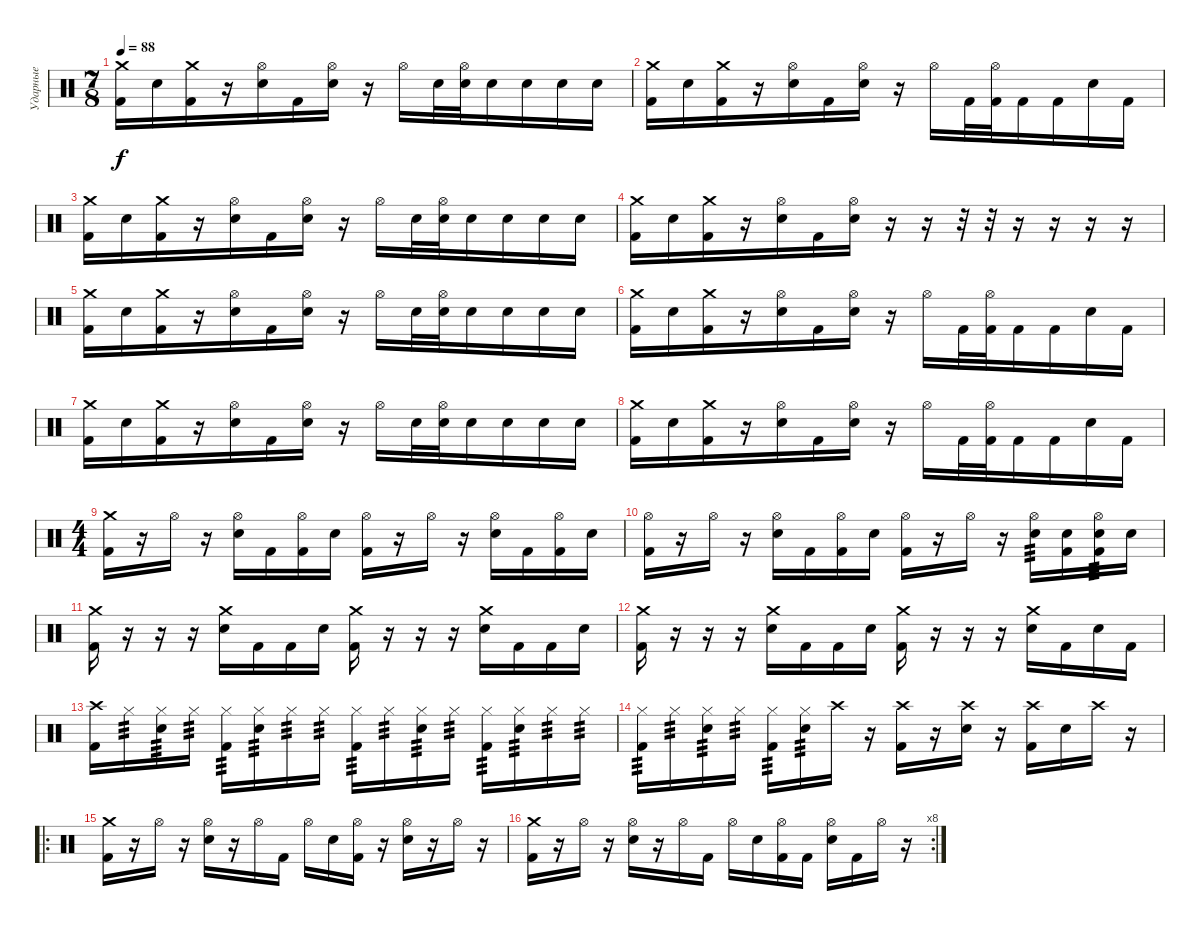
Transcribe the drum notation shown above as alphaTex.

\track ("Ударные" "Ударные") {instrument percussion}
\staff {score}
\articulation defaults
\ts (7 8)
\tempo 88
\clef neutral
\ks c
("Crash medium (hit)" "Kick (hit) 2").16{dy f} "Snare (hit) 2".16 ("Crash medium (hit)" "Kick (hit) 2").16 r.16 ("Hi-Hat (open)" "Snare (hit) 2").16 "Kick (hit) 2".16 ("Hi-Hat (open)" "Snare (hit) 2").16 r.16 "Hi-Hat (open)".16 "Snare (hit) 2".32 ("Hi-Hat (open)" "Snare (hit) 2").32 "Snare (hit) 2".16 "Snare (hit) 2".16 "Snare (hit) 2".16 "Snare (hit) 2".16 |
("Crash medium (hit)" "Kick (hit) 2").16 "Snare (hit) 2".16 ("Crash medium (hit)" "Kick (hit) 2").16 r.16 ("Hi-Hat (open)" "Snare (hit) 2").16 "Kick (hit) 2".16 ("Hi-Hat (open)" "Snare (hit) 2").16 r.16 "Hi-Hat (open)".16 "Kick (hit) 2".32 ("Hi-Hat (open)" "Kick (hit) 2").32 "Kick (hit) 2".16 "Kick (hit) 2".16 "Snare (hit) 2".16 "Kick (hit) 2".16 |
("Crash medium (hit)" "Kick (hit) 2").16 "Snare (hit) 2".16 ("Crash medium (hit)" "Kick (hit) 2").16 r.16 ("Hi-Hat (open)" "Snare (hit) 2").16 "Kick (hit) 2".16 ("Hi-Hat (open)" "Snare (hit) 2").16 r.16 "Hi-Hat (open)".16 "Snare (hit) 2".32 ("Hi-Hat (open)" "Snare (hit) 2").32 "Snare (hit) 2".16 "Snare (hit) 2".16 "Snare (hit) 2".16 "Snare (hit) 2".16 |
("Crash medium (hit)" "Kick (hit) 2").16 "Snare (hit) 2".16 ("Crash medium (hit)" "Kick (hit) 2").16 r.16 ("Hi-Hat (open)" "Snare (hit) 2").16 "Kick (hit) 2".16 ("Hi-Hat (open)" "Snare (hit) 2").16 r.16 r.16 r.32 r.32 r.16 r.16 r.16 r.16 |
("Crash medium (hit)" "Kick (hit) 2").16 "Snare (hit) 2".16 ("Crash medium (hit)" "Kick (hit) 2").16 r.16 ("Hi-Hat (open)" "Snare (hit) 2").16 "Kick (hit) 2".16 ("Hi-Hat (open)" "Snare (hit) 2").16 r.16 "Hi-Hat (open)".16 "Snare (hit) 2".32 ("Hi-Hat (open)" "Snare (hit) 2").32 "Snare (hit) 2".16 "Snare (hit) 2".16 "Snare (hit) 2".16 "Snare (hit) 2".16 |
("Crash medium (hit)" "Kick (hit) 2").16 "Snare (hit) 2".16 ("Crash medium (hit)" "Kick (hit) 2").16 r.16 ("Hi-Hat (open)" "Snare (hit) 2").16 "Kick (hit) 2".16 ("Hi-Hat (open)" "Snare (hit) 2").16 r.16 "Hi-Hat (open)".16 "Kick (hit) 2".32 ("Hi-Hat (open)" "Kick (hit) 2").32 "Kick (hit) 2".16 "Kick (hit) 2".16 "Snare (hit) 2".16 "Kick (hit) 2".16 |
("Crash medium (hit)" "Kick (hit) 2").16 "Snare (hit) 2".16 ("Crash medium (hit)" "Kick (hit) 2").16 r.16 ("Hi-Hat (open)" "Snare (hit) 2").16 "Kick (hit) 2".16 ("Hi-Hat (open)" "Snare (hit) 2").16 r.16 "Hi-Hat (open)".16 "Snare (hit) 2".32 ("Hi-Hat (open)" "Snare (hit) 2").32 "Snare (hit) 2".16 "Snare (hit) 2".16 "Snare (hit) 2".16 "Snare (hit) 2".16 |
("Crash medium (hit)" "Kick (hit) 2").16 "Snare (hit) 2".16 ("Crash medium (hit)" "Kick (hit) 2").16 r.16 ("Hi-Hat (open)" "Snare (hit) 2").16 "Kick (hit) 2".16 ("Hi-Hat (open)" "Snare (hit) 2").16 r.16 "Hi-Hat (open)".16 "Kick (hit) 2".32 ("Hi-Hat (open)" "Kick (hit) 2").32 "Kick (hit) 2".16 "Kick (hit) 2".16 "Snare (hit) 2".16 "Kick (hit) 2".16 |
\ts (4 4)
("Crash medium (hit)" "Kick (hit) 2").16 r.16 "Hi-Hat (open)".16 r.16 ("Hi-Hat (open)" "Snare (hit) 2").16 "Kick (hit) 2".16 ("Hi-Hat (open)" "Kick (hit) 2").16 "Snare (hit) 2".16 ("Hi-Hat (open)" "Kick (hit) 2").16 r.16 "Hi-Hat (open)".16 r.16 ("Hi-Hat (open)" "Snare (hit) 2").16 "Kick (hit) 2".16 ("Hi-Hat (open)" "Kick (hit) 2").16 "Snare (hit) 2".16 |
("Hi-Hat (open)" "Kick (hit) 2").16 r.16 "Hi-Hat (open)".16 r.16 ("Hi-Hat (open)" "Snare (hit) 2").16 "Kick (hit) 2".16 ("Hi-Hat (open)" "Kick (hit) 2").16 "Snare (hit) 2".16 ("Hi-Hat (open)" "Kick (hit) 2").16 r.16 "Hi-Hat (open)".16 r.16 ("Hi-Hat (open)" "Snare (hit) 2").16{tp 3} ("Snare (hit) 2" "Kick (hit) 2").16 ("Hi-Hat (open)" "Snare (hit) 2" "Kick (hit) 2").16{tp 3} "Snare (hit) 2".16 |
("Crash medium (hit)" "Kick (hit) 2").16 r.16 r.16 r.16 ("Crash medium (hit)" "Snare (hit) 2").16 "Kick (hit) 2".16 "Kick (hit) 2".16 "Snare (hit) 2".16 ("Crash medium (hit)" "Kick (hit) 2").16 r.16 r.16 r.16 ("Crash medium (hit)" "Snare (hit) 2").16 "Kick (hit) 2".16 "Kick (hit) 2".16 "Snare (hit) 2".16 |
("Crash medium (hit)" "Kick (hit) 2").16 r.16 r.16 r.16 ("Crash medium (hit)" "Snare (hit) 2").16 "Kick (hit) 2".16 "Kick (hit) 2".16 "Snare (hit) 2".16 ("Crash medium (hit)" "Kick (hit) 2").16 r.16 r.16 r.16 ("Crash medium (hit)" "Snare (hit) 2").16 "Kick (hit) 2".16 "Snare (hit) 2".16 "Kick (hit) 2".16 |
("Crash high (hit)" "Kick (hit) 2").16 "Hi-Hat (closed)".16{tp 3} ("Hi-Hat (closed)" "Snare (hit) 2").16{tp 3} "Hi-Hat (closed)".16{tp 3} ("Hi-Hat (closed)" "Kick (hit) 2").16{tp 3} ("Hi-Hat (closed)" "Snare (hit) 2").16{tp 3} "Hi-Hat (closed)".16{tp 3} "Hi-Hat (closed)".16{tp 3} ("Hi-Hat (closed)" "Kick (hit) 2").16{tp 3} "Hi-Hat (closed)".16{tp 3} ("Hi-Hat (closed)" "Snare (hit) 2").16{tp 3} "Hi-Hat (closed)".16{tp 3} ("Hi-Hat (closed)" "Kick (hit) 2").16{tp 3} ("Hi-Hat (closed)" "Snare (hit) 2").16{tp 3} "Hi-Hat (closed)".16{tp 3} "Hi-Hat (closed)".16{tp 3} |
("Hi-Hat (closed)" "Kick (hit) 2").16{tp 3} "Hi-Hat (closed)".16{tp 3} ("Hi-Hat (closed)" "Snare (hit) 2").16{tp 3} "Hi-Hat (closed)".16{tp 3} ("Hi-Hat (closed)" "Kick (hit) 2").16{tp 3} ("Hi-Hat (closed)" "Snare (hit) 2").16{tp 3} "Crash high (hit)".16 r.16 ("Crash high (hit)" "Kick (hit) 2").16 r.16 ("Crash high (hit)" "Snare (hit) 2").16 r.16 ("Crash high (hit)" "Kick (hit) 2").16 "Snare (hit) 2".16 "Crash high (hit)".16 r.16 |
\ro
("Crash medium (hit)" "Kick (hit) 2").16 r.16 "Hi-Hat (open)".16 r.16 ("Hi-Hat (open)" "Snare (hit) 2").16 r.16 "Hi-Hat (open)".16 "Kick (hit) 2".16 "Hi-Hat (open)".16 "Snare (hit) 2".16 ("Hi-Hat (open)" "Kick (hit) 2").16 r.16 ("Hi-Hat (open)" "Snare (hit) 2").16 r.16 "Hi-Hat (open)".16 r.16 |
\rc 8
("Crash medium (hit)" "Kick (hit) 2").16 r.16 "Hi-Hat (open)".16 r.16 ("Hi-Hat (open)" "Snare (hit) 2").16 r.16 "Hi-Hat (open)".16 "Kick (hit) 2".16 "Hi-Hat (open)".16 "Snare (hit) 2".16 ("Hi-Hat (open)" "Kick (hit) 2").16 "Kick (hit) 2".16 ("Hi-Hat (open)" "Snare (hit) 2").16 "Kick (hit) 2".16 "Hi-Hat (open)".16 r.16
